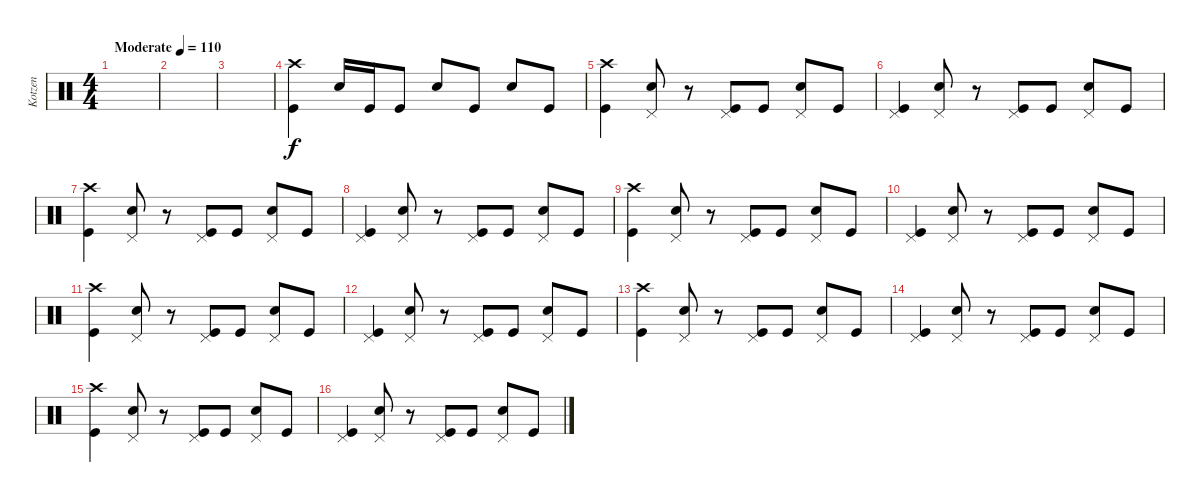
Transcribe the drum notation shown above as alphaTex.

\track ("Kotzen" "Kotzen") {instrument percussion}
\staff {score}
\articulation defaults
\ts (4 4)
\tempo (110 "Moderate")
\clef neutral
\ks c
|
|
|
("Crash high (hit)" "Kick (hit)").4 "Snare (hit) 2".16 "Kick (hit)".16 "Kick (hit)".8 "Snare (hit) 2".8 "Kick (hit)".8 "Snare (hit) 2".8 "Kick (hit)".8 |
("Crash high (hit)" "Kick (hit)").4 ("Pedal Hi-Hat (hit)" "Snare (hit) 2").8 r.8 ("Pedal Hi-Hat (hit)" "Kick (hit)").8 "Kick (hit)".8 ("Pedal Hi-Hat (hit)" "Snare (hit) 2").8 "Kick (hit)".8 |
("Pedal Hi-Hat (hit)" "Kick (hit)").4 ("Pedal Hi-Hat (hit)" "Snare (hit) 2").8 r.8 ("Pedal Hi-Hat (hit)" "Kick (hit)").8 "Kick (hit)".8 ("Pedal Hi-Hat (hit)" "Snare (hit) 2").8 "Kick (hit)".8 |
("Crash high (hit)" "Kick (hit)").4 ("Pedal Hi-Hat (hit)" "Snare (hit) 2").8 r.8 ("Pedal Hi-Hat (hit)" "Kick (hit)").8 "Kick (hit)".8 ("Pedal Hi-Hat (hit)" "Snare (hit) 2").8 "Kick (hit)".8 |
("Pedal Hi-Hat (hit)" "Kick (hit)").4 ("Pedal Hi-Hat (hit)" "Snare (hit) 2").8 r.8 ("Pedal Hi-Hat (hit)" "Kick (hit)").8 "Kick (hit)".8 ("Pedal Hi-Hat (hit)" "Snare (hit) 2").8 "Kick (hit)".8 |
("Crash high (hit)" "Kick (hit)").4 ("Pedal Hi-Hat (hit)" "Snare (hit) 2").8 r.8 ("Pedal Hi-Hat (hit)" "Kick (hit)").8 "Kick (hit)".8 ("Pedal Hi-Hat (hit)" "Snare (hit) 2").8 "Kick (hit)".8 |
("Pedal Hi-Hat (hit)" "Kick (hit)").4 ("Pedal Hi-Hat (hit)" "Snare (hit) 2").8 r.8 ("Pedal Hi-Hat (hit)" "Kick (hit)").8 "Kick (hit)".8 ("Pedal Hi-Hat (hit)" "Snare (hit) 2").8 "Kick (hit)".8 |
("Crash high (hit)" "Kick (hit)").4 ("Pedal Hi-Hat (hit)" "Snare (hit) 2").8 r.8 ("Pedal Hi-Hat (hit)" "Kick (hit)").8 "Kick (hit)".8 ("Pedal Hi-Hat (hit)" "Snare (hit) 2").8 "Kick (hit)".8 |
("Pedal Hi-Hat (hit)" "Kick (hit)").4 ("Pedal Hi-Hat (hit)" "Snare (hit) 2").8 r.8 ("Pedal Hi-Hat (hit)" "Kick (hit)").8 "Kick (hit)".8 ("Pedal Hi-Hat (hit)" "Snare (hit) 2").8 "Kick (hit)".8 |
("Crash high (hit)" "Kick (hit)").4 ("Pedal Hi-Hat (hit)" "Snare (hit) 2").8 r.8 ("Pedal Hi-Hat (hit)" "Kick (hit)").8 "Kick (hit)".8 ("Pedal Hi-Hat (hit)" "Snare (hit) 2").8 "Kick (hit)".8 |
("Pedal Hi-Hat (hit)" "Kick (hit)").4 ("Pedal Hi-Hat (hit)" "Snare (hit) 2").8 r.8 ("Pedal Hi-Hat (hit)" "Kick (hit)").8 "Kick (hit)".8 ("Pedal Hi-Hat (hit)" "Snare (hit) 2").8 "Kick (hit)".8 |
("Crash high (hit)" "Kick (hit)").4 ("Pedal Hi-Hat (hit)" "Snare (hit) 2").8 r.8 ("Pedal Hi-Hat (hit)" "Kick (hit)").8 "Kick (hit)".8 ("Pedal Hi-Hat (hit)" "Snare (hit) 2").8 "Kick (hit)".8 |
("Pedal Hi-Hat (hit)" "Kick (hit)").4 ("Pedal Hi-Hat (hit)" "Snare (hit) 2").8 r.8 ("Pedal Hi-Hat (hit)" "Kick (hit)").8 "Kick (hit)".8 ("Pedal Hi-Hat (hit)" "Snare (hit) 2").8 "Kick (hit)".8
